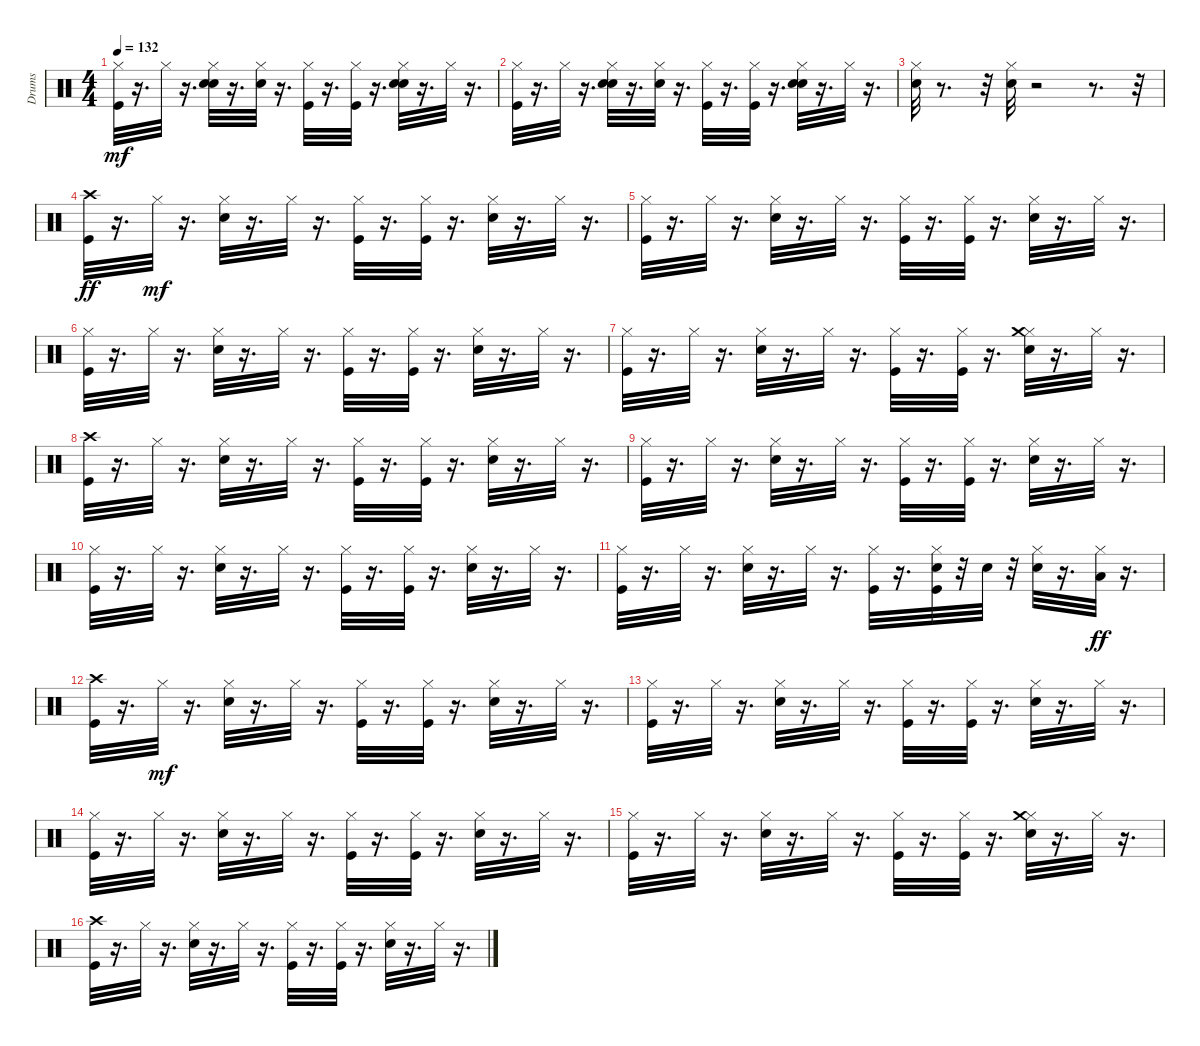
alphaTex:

\track ("Drums" "Drums") {instrument percussion}
\staff {score}
\articulation defaults
\ts (4 4)
\tempo 132
\clef neutral
\ks c
("Kick (hit)" "Hi-Hat (closed)").32{dy mf} r.16{d} "Hi-Hat (closed)".32 r.16{d} ("Hand Clap (hit)" "Electric Snare (hit)" "Hi-Hat (closed)").32 r.16{d} ("Hand Clap (hit)" "Hi-Hat (closed)").32 r.16{d} ("Kick (hit)" "Hi-Hat (closed)").32 r.16{d} ("Kick (hit)" "Hi-Hat (closed)").32 r.16{d} ("Hand Clap (hit)" "Electric Snare (hit)" "Hi-Hat (closed)").32 r.16{d} "Hi-Hat (closed)".32 r.16{d} |
("Kick (hit)" "Hi-Hat (closed)").32 r.16{d} "Hi-Hat (closed)".32 r.16{d} ("Hand Clap (hit)" "Electric Snare (hit)" "Hi-Hat (closed)").32 r.16{d} ("Hand Clap (hit)" "Hi-Hat (closed)").32 r.16{d} ("Kick (hit)" "Hi-Hat (closed)").32 r.16{d} ("Kick (hit)" "Hi-Hat (closed)").32 r.16{d} ("Hand Clap (hit)" "Electric Snare (hit)" "Hi-Hat (closed)").32 r.16{d} "Hi-Hat (closed)".32 r.16{d} |
("Electric Snare (hit)" "Hi-Hat (closed)").32 r.8{d} r.32 ("Electric Snare (hit)" "Hi-Hat (closed)").32 r.2 r.8{d} r.32 |
("Kick (hit)" "Crash high (hit)").32{dy ff} r.16{d} "Hi-Hat (closed)".32{dy mf} r.16{d} ("Electric Snare (hit)" "Hi-Hat (closed)").32 r.16{d} "Hi-Hat (closed)".32 r.16{d} ("Kick (hit)" "Hi-Hat (closed)").32 r.16{d} ("Kick (hit)" "Hi-Hat (closed)").32 r.16{d} ("Electric Snare (hit)" "Hi-Hat (closed)").32 r.16{d} "Hi-Hat (closed)".32 r.16{d} |
("Kick (hit)" "Hi-Hat (closed)").32 r.16{d} "Hi-Hat (closed)".32 r.16{d} ("Electric Snare (hit)" "Hi-Hat (closed)").32 r.16{d} "Hi-Hat (closed)".32 r.16{d} ("Kick (hit)" "Hi-Hat (closed)").32 r.16{d} ("Kick (hit)" "Hi-Hat (closed)").32 r.16{d} ("Electric Snare (hit)" "Hi-Hat (closed)").32 r.16{d} "Hi-Hat (closed)".32 r.16{d} |
("Kick (hit)" "Hi-Hat (closed)").32 r.16{d} "Hi-Hat (closed)".32 r.16{d} ("Electric Snare (hit)" "Hi-Hat (closed)").32 r.16{d} "Hi-Hat (closed)".32 r.16{d} ("Kick (hit)" "Hi-Hat (closed)").32 r.16{d} ("Kick (hit)" "Hi-Hat (closed)").32 r.16{d} ("Electric Snare (hit)" "Hi-Hat (closed)").32 r.16{d} "Hi-Hat (closed)".32 r.16{d} |
("Kick (hit)" "Hi-Hat (closed)").32 r.16{d} "Hi-Hat (closed)".32 r.16{d} ("Electric Snare (hit)" "Hi-Hat (closed)").32 r.16{d} "Hi-Hat (closed)".32 r.16{d} ("Kick (hit)" "Hi-Hat (closed)").32 r.16{d} ("Kick (hit)" "Hi-Hat (closed)").32 r.16{d} ("Electric Snare (hit)" "Hi-Hat (closed)" "Crash medium (hit)").32 r.16{d} "Hi-Hat (closed)".32 r.16{d} |
("Kick (hit)" "Crash high (hit)").32 r.16{d} "Hi-Hat (closed)".32 r.16{d} ("Electric Snare (hit)" "Hi-Hat (closed)").32 r.16{d} "Hi-Hat (closed)".32 r.16{d} ("Kick (hit)" "Hi-Hat (closed)").32 r.16{d} ("Kick (hit)" "Hi-Hat (closed)").32 r.16{d} ("Electric Snare (hit)" "Hi-Hat (closed)").32 r.16{d} "Hi-Hat (closed)".32 r.16{d} |
("Kick (hit)" "Hi-Hat (closed)").32 r.16{d} "Hi-Hat (closed)".32 r.16{d} ("Electric Snare (hit)" "Hi-Hat (closed)").32 r.16{d} "Hi-Hat (closed)".32 r.16{d} ("Kick (hit)" "Hi-Hat (closed)").32 r.16{d} ("Kick (hit)" "Hi-Hat (closed)").32 r.16{d} ("Electric Snare (hit)" "Hi-Hat (closed)").32 r.16{d} "Hi-Hat (closed)".32 r.16{d} |
("Kick (hit)" "Hi-Hat (closed)").32 r.16{d} "Hi-Hat (closed)".32 r.16{d} ("Electric Snare (hit)" "Hi-Hat (closed)").32 r.16{d} "Hi-Hat (closed)".32 r.16{d} ("Kick (hit)" "Hi-Hat (closed)").32 r.16{d} ("Kick (hit)" "Hi-Hat (closed)").32 r.16{d} ("Electric Snare (hit)" "Hi-Hat (closed)").32 r.16{d} "Hi-Hat (closed)".32 r.16{d} |
("Kick (hit)" "Hi-Hat (closed)").32 r.16{d} "Hi-Hat (closed)".32 r.16{d} ("Electric Snare (hit)" "Hi-Hat (closed)").32 r.16{d} "Hi-Hat (closed)".32 r.16{d} ("Kick (hit)" "Hi-Hat (closed)").32 r.16{d} ("Kick (hit)" "Electric Snare (hit)" "Hi-Hat (closed)").32 r.32 "Electric Snare (hit)".32 r.32 ("Electric Snare (hit)" "Hi-Hat (closed)").32 r.16{d} ("Hi-Hat (closed)" "Low Tom (hit)").32{dy ff} r.16{d} |
("Kick (hit)" "Crash high (hit)").32 r.16{d} "Hi-Hat (closed)".32{dy mf} r.16{d} ("Electric Snare (hit)" "Hi-Hat (closed)").32 r.16{d} "Hi-Hat (closed)".32 r.16{d} ("Kick (hit)" "Hi-Hat (closed)").32 r.16{d} ("Kick (hit)" "Hi-Hat (closed)").32 r.16{d} ("Electric Snare (hit)" "Hi-Hat (closed)").32 r.16{d} "Hi-Hat (closed)".32 r.16{d} |
("Kick (hit)" "Hi-Hat (closed)").32 r.16{d} "Hi-Hat (closed)".32 r.16{d} ("Electric Snare (hit)" "Hi-Hat (closed)").32 r.16{d} "Hi-Hat (closed)".32 r.16{d} ("Kick (hit)" "Hi-Hat (closed)").32 r.16{d} ("Kick (hit)" "Hi-Hat (closed)").32 r.16{d} ("Electric Snare (hit)" "Hi-Hat (closed)").32 r.16{d} "Hi-Hat (closed)".32 r.16{d} |
("Kick (hit)" "Hi-Hat (closed)").32 r.16{d} "Hi-Hat (closed)".32 r.16{d} ("Electric Snare (hit)" "Hi-Hat (closed)").32 r.16{d} "Hi-Hat (closed)".32 r.16{d} ("Kick (hit)" "Hi-Hat (closed)").32 r.16{d} ("Kick (hit)" "Hi-Hat (closed)").32 r.16{d} ("Electric Snare (hit)" "Hi-Hat (closed)").32 r.16{d} "Hi-Hat (closed)".32 r.16{d} |
("Kick (hit)" "Hi-Hat (closed)").32 r.16{d} "Hi-Hat (closed)".32 r.16{d} ("Electric Snare (hit)" "Hi-Hat (closed)").32 r.16{d} "Hi-Hat (closed)".32 r.16{d} ("Kick (hit)" "Hi-Hat (closed)").32 r.16{d} ("Kick (hit)" "Hi-Hat (closed)").32 r.16{d} ("Electric Snare (hit)" "Hi-Hat (closed)" "Crash medium (hit)").32 r.16{d} "Hi-Hat (closed)".32 r.16{d} |
("Kick (hit)" "Crash high (hit)").32 r.16{d} "Hi-Hat (closed)".32 r.16{d} ("Electric Snare (hit)" "Hi-Hat (closed)").32 r.16{d} "Hi-Hat (closed)".32 r.16{d} ("Kick (hit)" "Hi-Hat (closed)").32 r.16{d} ("Kick (hit)" "Hi-Hat (closed)").32 r.16{d} ("Electric Snare (hit)" "Hi-Hat (closed)").32 r.16{d} "Hi-Hat (closed)".32 r.16{d}
